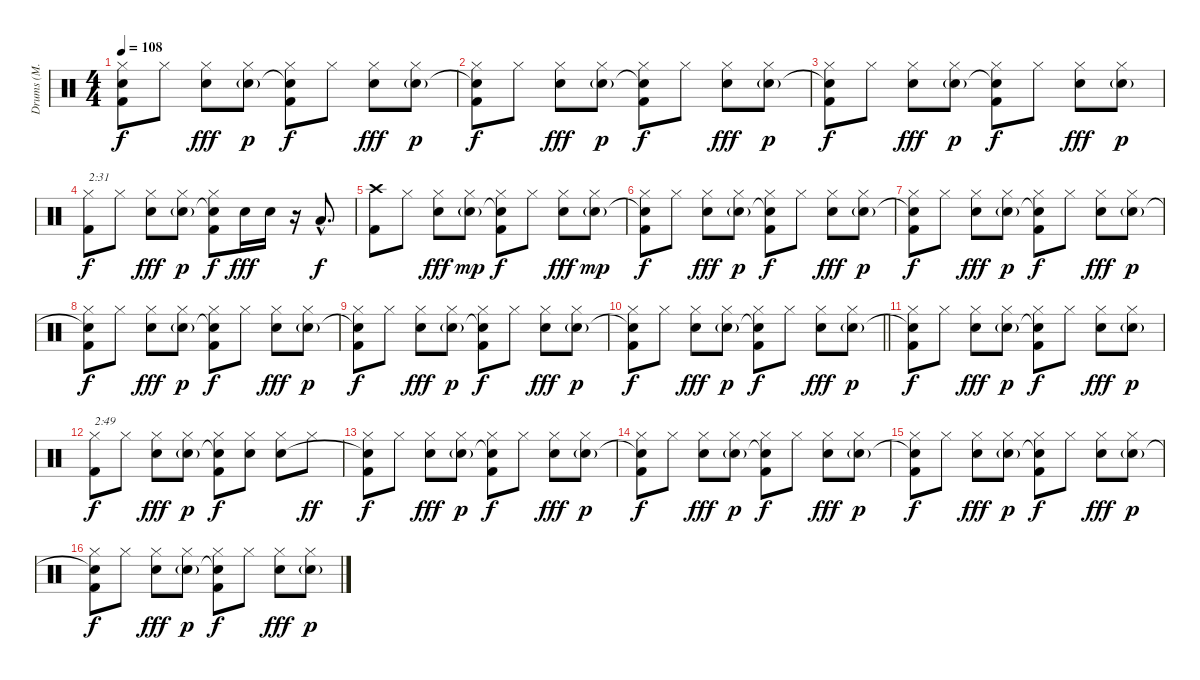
\track ("Drums (M. Chambers)" "Drums (M. ") {instrument percussion}
\staff {score}
\articulation defaults
\ts (4 4)
\tempo 108
\clef neutral
\ks c
("Hi-Hat (closed)" "Snare (hit)"{t} "Kick (hit) 2").8{dy f} "Hi-Hat (closed)".8 ("Hi-Hat (closed)" "Electric Snare (hit)").8{dy fff} ("Hi-Hat (closed)" "Electric Snare (hit)"{g}).8{dy p} ("Hi-Hat (closed)" "Snare (hit)"{t} "Kick (hit) 2").8{dy f} "Hi-Hat (closed)".8 ("Hi-Hat (closed)" "Electric Snare (hit)").8{dy fff} ("Hi-Hat (closed)" "Electric Snare (hit)"{g}).8{dy p} |
("Hi-Hat (closed)" "Snare (hit)"{t} "Kick (hit) 2").8{dy f} "Hi-Hat (closed)".8 ("Hi-Hat (closed)" "Electric Snare (hit)").8{dy fff} ("Hi-Hat (closed)" "Electric Snare (hit)"{g}).8{dy p} ("Hi-Hat (closed)" "Snare (hit)"{t} "Kick (hit) 2").8{dy f} "Hi-Hat (closed)".8 ("Hi-Hat (closed)" "Electric Snare (hit)").8{dy fff} ("Hi-Hat (closed)" "Electric Snare (hit)"{g}).8{dy p} |
("Hi-Hat (closed)" "Snare (hit)"{t} "Kick (hit) 2").8{dy f} "Hi-Hat (closed)".8 ("Hi-Hat (closed)" "Electric Snare (hit)").8{dy fff} ("Hi-Hat (closed)" "Electric Snare (hit)"{g}).8{dy p} ("Hi-Hat (closed)" "Snare (hit)"{t} "Kick (hit) 2").8{dy f} "Hi-Hat (closed)".8 ("Hi-Hat (closed)" "Electric Snare (hit)").8{dy fff} ("Hi-Hat (closed)" "Electric Snare (hit)"{g}).8{dy p} |
("Hi-Hat (closed)" "Kick (hit) 2").8{txt "2:31" dy f} "Hi-Hat (closed)".8 ("Hi-Hat (closed)" "Electric Snare (hit)").8{dy fff} ("Hi-Hat (closed)" "Electric Snare (hit)"{g}).8{dy p} ("Hi-Hat (closed)" "Snare (hit)"{t} "Kick (hit) 2").8{dy f} "Electric Snare (hit)".16{dy fff} "Electric Snare (hit)".16 r.16 "Low Tom (hit)"{hac}.8{d dy f} |
("Crash high (hit)" "Kick (hit) 2").8 "Hi-Hat (closed)".8 ("Hi-Hat (closed)" "Electric Snare (hit)").8{dy fff} ("Hi-Hat (closed)" "Electric Snare (hit)"{g}).8{dy mp} ("Hi-Hat (closed)" "Snare (hit)"{t} "Kick (hit) 2").8{dy f} "Hi-Hat (closed)".8 ("Hi-Hat (closed)" "Electric Snare (hit)").8{dy fff} ("Hi-Hat (closed)" "Electric Snare (hit)"{g}).8{dy mp} |
("Hi-Hat (closed)" "Snare (hit)"{t} "Kick (hit) 2").8{dy f} "Hi-Hat (closed)".8 ("Hi-Hat (closed)" "Electric Snare (hit)").8{dy fff} ("Hi-Hat (closed)" "Electric Snare (hit)"{g}).8{dy p} ("Hi-Hat (closed)" "Snare (hit)"{t} "Kick (hit) 2").8{dy f} "Hi-Hat (closed)".8 ("Hi-Hat (closed)" "Electric Snare (hit)").8{dy fff} ("Hi-Hat (closed)" "Electric Snare (hit)"{g}).8{dy p} |
("Hi-Hat (closed)" "Snare (hit)"{t} "Kick (hit) 2").8{dy f} "Hi-Hat (closed)".8 ("Hi-Hat (closed)" "Electric Snare (hit)").8{dy fff} ("Hi-Hat (closed)" "Electric Snare (hit)"{g}).8{dy p} ("Hi-Hat (closed)" "Snare (hit)"{t} "Kick (hit) 2").8{dy f} "Hi-Hat (closed)".8 ("Hi-Hat (closed)" "Electric Snare (hit)").8{dy fff} ("Hi-Hat (closed)" "Electric Snare (hit)"{g}).8{dy p} |
("Hi-Hat (closed)" "Snare (hit)"{t} "Kick (hit) 2").8{dy f} "Hi-Hat (closed)".8 ("Hi-Hat (closed)" "Electric Snare (hit)").8{dy fff} ("Hi-Hat (closed)" "Electric Snare (hit)"{g}).8{dy p} ("Hi-Hat (closed)" "Snare (hit)"{t} "Kick (hit) 2").8{dy f} "Hi-Hat (closed)".8 ("Hi-Hat (closed)" "Electric Snare (hit)").8{dy fff} ("Hi-Hat (closed)" "Electric Snare (hit)"{g}).8{dy p} |
("Hi-Hat (closed)" "Snare (hit)"{t} "Kick (hit) 2").8{dy f} "Hi-Hat (closed)".8 ("Hi-Hat (closed)" "Electric Snare (hit)").8{dy fff} ("Hi-Hat (closed)" "Electric Snare (hit)"{g}).8{dy p} ("Hi-Hat (closed)" "Snare (hit)"{t} "Kick (hit) 2").8{dy f} "Hi-Hat (closed)".8 ("Hi-Hat (closed)" "Electric Snare (hit)").8{dy fff} ("Hi-Hat (closed)" "Electric Snare (hit)"{g}).8{dy p} |
\barLineRight lightlight
("Hi-Hat (closed)" "Snare (hit)"{t} "Kick (hit) 2").8{dy f} "Hi-Hat (closed)".8 ("Hi-Hat (closed)" "Electric Snare (hit)").8{dy fff} ("Hi-Hat (closed)" "Electric Snare (hit)"{g}).8{dy p} ("Hi-Hat (closed)" "Snare (hit)"{t} "Kick (hit) 2").8{dy f} "Hi-Hat (closed)".8 ("Hi-Hat (closed)" "Electric Snare (hit)").8{dy fff} ("Hi-Hat (closed)" "Electric Snare (hit)"{g}).8{dy p} |
("Hi-Hat (closed)" "Snare (hit)"{t} "Kick (hit) 2").8{dy f} "Hi-Hat (closed)".8 ("Hi-Hat (closed)" "Electric Snare (hit)").8{dy fff} ("Hi-Hat (closed)" "Electric Snare (hit)"{g}).8{dy p} ("Hi-Hat (closed)" "Snare (hit)"{t} "Kick (hit) 2").8{dy f} "Hi-Hat (closed)".8 ("Hi-Hat (closed)" "Electric Snare (hit)").8{dy fff} ("Hi-Hat (closed)" "Electric Snare (hit)"{g}).8{dy p} |
("Hi-Hat (closed)" "Kick (hit) 2").8{txt "2:49" dy f} "Hi-Hat (closed)".8 ("Hi-Hat (closed)" "Electric Snare (hit)").8{dy fff} ("Hi-Hat (closed)" "Electric Snare (hit)"{g}).8{dy p} ("Hi-Hat (closed)" "Snare (hit)"{t} "Kick (hit) 2").8{dy f} ("Hi-Hat (closed)" "Snare (hit) 2").8 ("Hi-Hat (closed)" "Snare (hit) 2").8 "Hi-Hat (closed)".8{dy ff} |
("Hi-Hat (closed)" "Snare (hit)"{t} "Kick (hit) 2").8{dy f} "Hi-Hat (closed)".8 ("Hi-Hat (closed)" "Electric Snare (hit)").8{dy fff} ("Hi-Hat (closed)" "Electric Snare (hit)"{g}).8{dy p} ("Hi-Hat (closed)" "Snare (hit)"{t} "Kick (hit) 2").8{dy f} "Hi-Hat (closed)".8 ("Hi-Hat (closed)" "Electric Snare (hit)").8{dy fff} ("Hi-Hat (closed)" "Electric Snare (hit)"{g}).8{dy p} |
("Hi-Hat (closed)" "Snare (hit)"{t} "Kick (hit) 2").8{dy f} "Hi-Hat (closed)".8 ("Hi-Hat (closed)" "Electric Snare (hit)").8{dy fff} ("Hi-Hat (closed)" "Electric Snare (hit)"{g}).8{dy p} ("Hi-Hat (closed)" "Snare (hit)"{t} "Kick (hit) 2").8{dy f} "Hi-Hat (closed)".8 ("Hi-Hat (closed)" "Electric Snare (hit)").8{dy fff} ("Hi-Hat (closed)" "Electric Snare (hit)"{g}).8{dy p} |
("Hi-Hat (closed)" "Snare (hit)"{t} "Kick (hit) 2").8{dy f} "Hi-Hat (closed)".8 ("Hi-Hat (closed)" "Electric Snare (hit)").8{dy fff} ("Hi-Hat (closed)" "Electric Snare (hit)"{g}).8{dy p} ("Hi-Hat (closed)" "Snare (hit)"{t} "Kick (hit) 2").8{dy f} "Hi-Hat (closed)".8 ("Hi-Hat (closed)" "Electric Snare (hit)").8{dy fff} ("Hi-Hat (closed)" "Electric Snare (hit)"{g}).8{dy p} |
("Hi-Hat (closed)" "Snare (hit)"{t} "Kick (hit) 2").8{dy f} "Hi-Hat (closed)".8 ("Hi-Hat (closed)" "Electric Snare (hit)").8{dy fff} ("Hi-Hat (closed)" "Electric Snare (hit)"{g}).8{dy p} ("Hi-Hat (closed)" "Snare (hit)"{t} "Kick (hit) 2").8{dy f} "Hi-Hat (closed)".8 ("Hi-Hat (closed)" "Electric Snare (hit)").8{dy fff} ("Hi-Hat (closed)" "Electric Snare (hit)"{g}).8{dy p}
